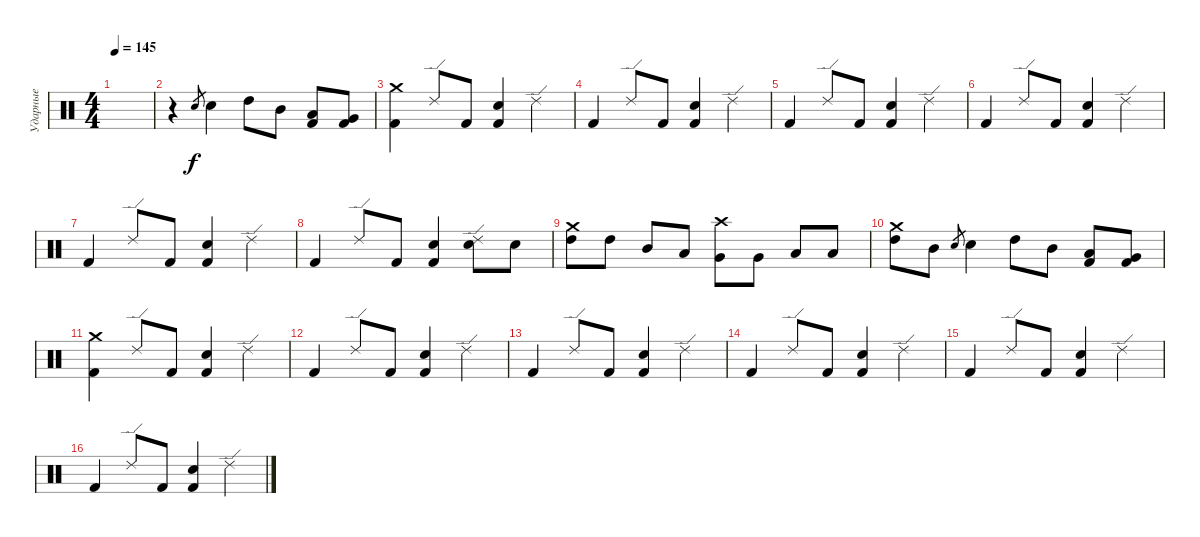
\track ("Ударные" "Ударные") {instrument percussion}
\staff {score}
\articulation defaults
\ts (4 4)
\tempo 145
\clef neutral
\ks c
|
r.4 "Electric Snare (hit)".8{gr} "Electric Snare (hit)".4 "High Tom (hit)".8 "Mid Tom (hit)".8 ("Low Tom (hit)" "Kick (hit) 2").8 ("Very Low Tom (hit)" "Kick (hit) 2").8 |
("Crash medium (hit)" "Kick (hit) 2").4 "Ride (edge) 2".8 "Kick (hit) 2".8 ("Electric Snare (hit)" "Kick (hit) 2").4 "Ride (edge) 2".4 |
"Kick (hit) 2".4 "Ride (edge) 2".8 "Kick (hit) 2".8 ("Electric Snare (hit)" "Kick (hit) 2").4 "Ride (edge) 2".4 |
"Kick (hit) 2".4 "Ride (edge) 2".8 "Kick (hit) 2".8 ("Electric Snare (hit)" "Kick (hit) 2").4 "Ride (edge) 2".4 |
"Kick (hit) 2".4 "Ride (edge) 2".8 "Kick (hit) 2".8 ("Electric Snare (hit)" "Kick (hit) 2").4 "Ride (edge) 2".4 |
"Kick (hit) 2".4 "Ride (edge) 2".8 "Kick (hit) 2".8 ("Electric Snare (hit)" "Kick (hit) 2").4 "Ride (edge) 2".4 |
"Kick (hit) 2".4 "Ride (edge) 2".8 "Kick (hit) 2".8 ("Electric Snare (hit)" "Kick (hit) 2").4 ("Ride (edge) 2" "Electric Snare (hit)").8 "Electric Snare (hit)".8 |
("High Tom (hit)" "Crash medium (hit)").8 "High Tom (hit)".8 "Mid Tom (hit)".8 "Low Tom (hit)".8 ("Very Low Tom (hit)" "Crash high (hit)").8 "Very Low Tom (hit)".8 "Low Floor Tom (hit)".8 "Low Floor Tom (hit)".8 |
("Crash medium (hit)" "High Tom (hit)").8 "Mid Tom (hit)".8 "Electric Snare (hit)".8{gr} "Electric Snare (hit)".4 "High Tom (hit)".8 "Mid Tom (hit)".8 ("Low Tom (hit)" "Kick (hit) 2").8 ("Very Low Tom (hit)" "Kick (hit) 2").8 |
("Crash medium (hit)" "Kick (hit) 2").4 "Ride (edge) 2".8 "Kick (hit) 2".8 ("Electric Snare (hit)" "Kick (hit) 2").4 "Ride (edge) 2".4 |
"Kick (hit) 2".4 "Ride (edge) 2".8 "Kick (hit) 2".8 ("Electric Snare (hit)" "Kick (hit) 2").4 "Ride (edge) 2".4 |
"Kick (hit) 2".4 "Ride (edge) 2".8 "Kick (hit) 2".8 ("Electric Snare (hit)" "Kick (hit) 2").4 "Ride (edge) 2".4 |
"Kick (hit) 2".4 "Ride (edge) 2".8 "Kick (hit) 2".8 ("Electric Snare (hit)" "Kick (hit) 2").4 "Ride (edge) 2".4 |
"Kick (hit) 2".4 "Ride (edge) 2".8 "Kick (hit) 2".8 ("Electric Snare (hit)" "Kick (hit) 2").4 "Ride (edge) 2".4 |
"Kick (hit) 2".4 "Ride (edge) 2".8 "Kick (hit) 2".8 ("Electric Snare (hit)" "Kick (hit) 2").4 "Ride (edge) 2".4
